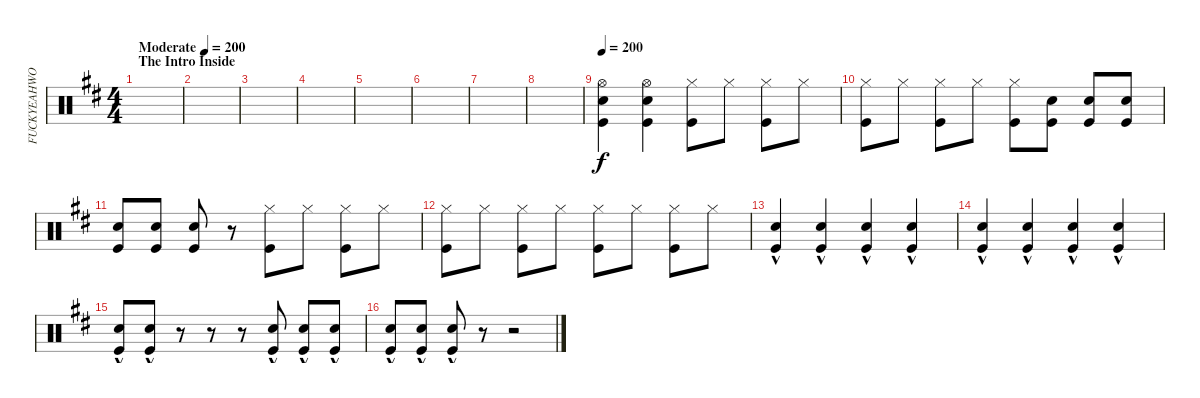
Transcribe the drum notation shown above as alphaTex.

\track ("FUCKYEAHWOOTDAVEMACKINTOSH!(Percussion)" "FUCKYEAHWO") {instrument percussion}
\staff {score}
\articulation defaults
\ts (4 4)
\section ("" "The Intro Inside")
\tempo (200 "Moderate")
\clef neutral
\ks d
|
|
|
|
|
|
|
|
\tempo 200
("Hi-Hat (open)" "Kick (hit)" "Snare (hit) 2").4 ("Hi-Hat (open)" "Kick (hit)" "Snare (hit) 2").4 ("Kick (hit)" "Hi-Hat (closed)").8 "Hi-Hat (closed)".8 ("Hi-Hat (closed)" "Kick (hit)").8 "Hi-Hat (closed)".8 |
("Hi-Hat (closed)" "Kick (hit)").8 "Hi-Hat (closed)".8 ("Hi-Hat (closed)" "Kick (hit)").8 "Hi-Hat (closed)".8 ("Hi-Hat (closed)" "Kick (hit)").8 ("Kick (hit)" "Snare (hit) 2").8 ("Kick (hit)" "Snare (hit) 2").8 ("Kick (hit)" "Snare (hit) 2").8 |
("Snare (hit) 2" "Kick (hit)").8 ("Snare (hit) 2" "Kick (hit)").8 ("Snare (hit) 2" "Kick (hit)").8 r.8 ("Hi-Hat (closed)" "Kick (hit)").8 "Hi-Hat (closed)".8 ("Hi-Hat (closed)" "Kick (hit)").8 "Hi-Hat (closed)".8 |
("Hi-Hat (closed)" "Kick (hit)").8 "Hi-Hat (closed)".8 ("Hi-Hat (closed)" "Kick (hit)").8 "Hi-Hat (closed)".8 ("Kick (hit)" "Hi-Hat (closed)").8 "Hi-Hat (closed)".8 ("Hi-Hat (closed)" "Kick (hit)").8 "Hi-Hat (closed)".8 |
("Kick (hit)"{hac} "Snare (hit) 2"{hac}).4 ("Kick (hit)"{hac} "Snare (hit) 2"{hac}).4 ("Kick (hit)"{hac} "Snare (hit) 2"{hac}).4 ("Kick (hit)"{hac} "Snare (hit) 2"{hac}).4 |
("Snare (hit) 2"{hac} "Kick (hit)"{hac}).4 ("Snare (hit) 2"{hac} "Kick (hit)"{hac}).4 ("Snare (hit) 2"{hac} "Kick (hit)"{hac}).4 ("Snare (hit) 2"{hac} "Kick (hit)"{hac}).4 |
("Kick (hit)"{hac} "Snare (hit) 2"{hac}).8 ("Kick (hit)"{hac} "Snare (hit) 2"{hac}).8 r.8 r.8 r.8 ("Kick (hit)"{hac} "Snare (hit) 2"{hac}).8 ("Kick (hit)"{hac} "Snare (hit) 2"{hac}).8 ("Kick (hit)"{hac} "Snare (hit) 2"{hac}).8 |
("Kick (hit)"{hac} "Snare (hit) 2"{hac}).8 ("Kick (hit)"{hac} "Snare (hit) 2"{hac}).8 ("Kick (hit)"{hac} "Snare (hit) 2"{hac}).8 r.8 r.2
